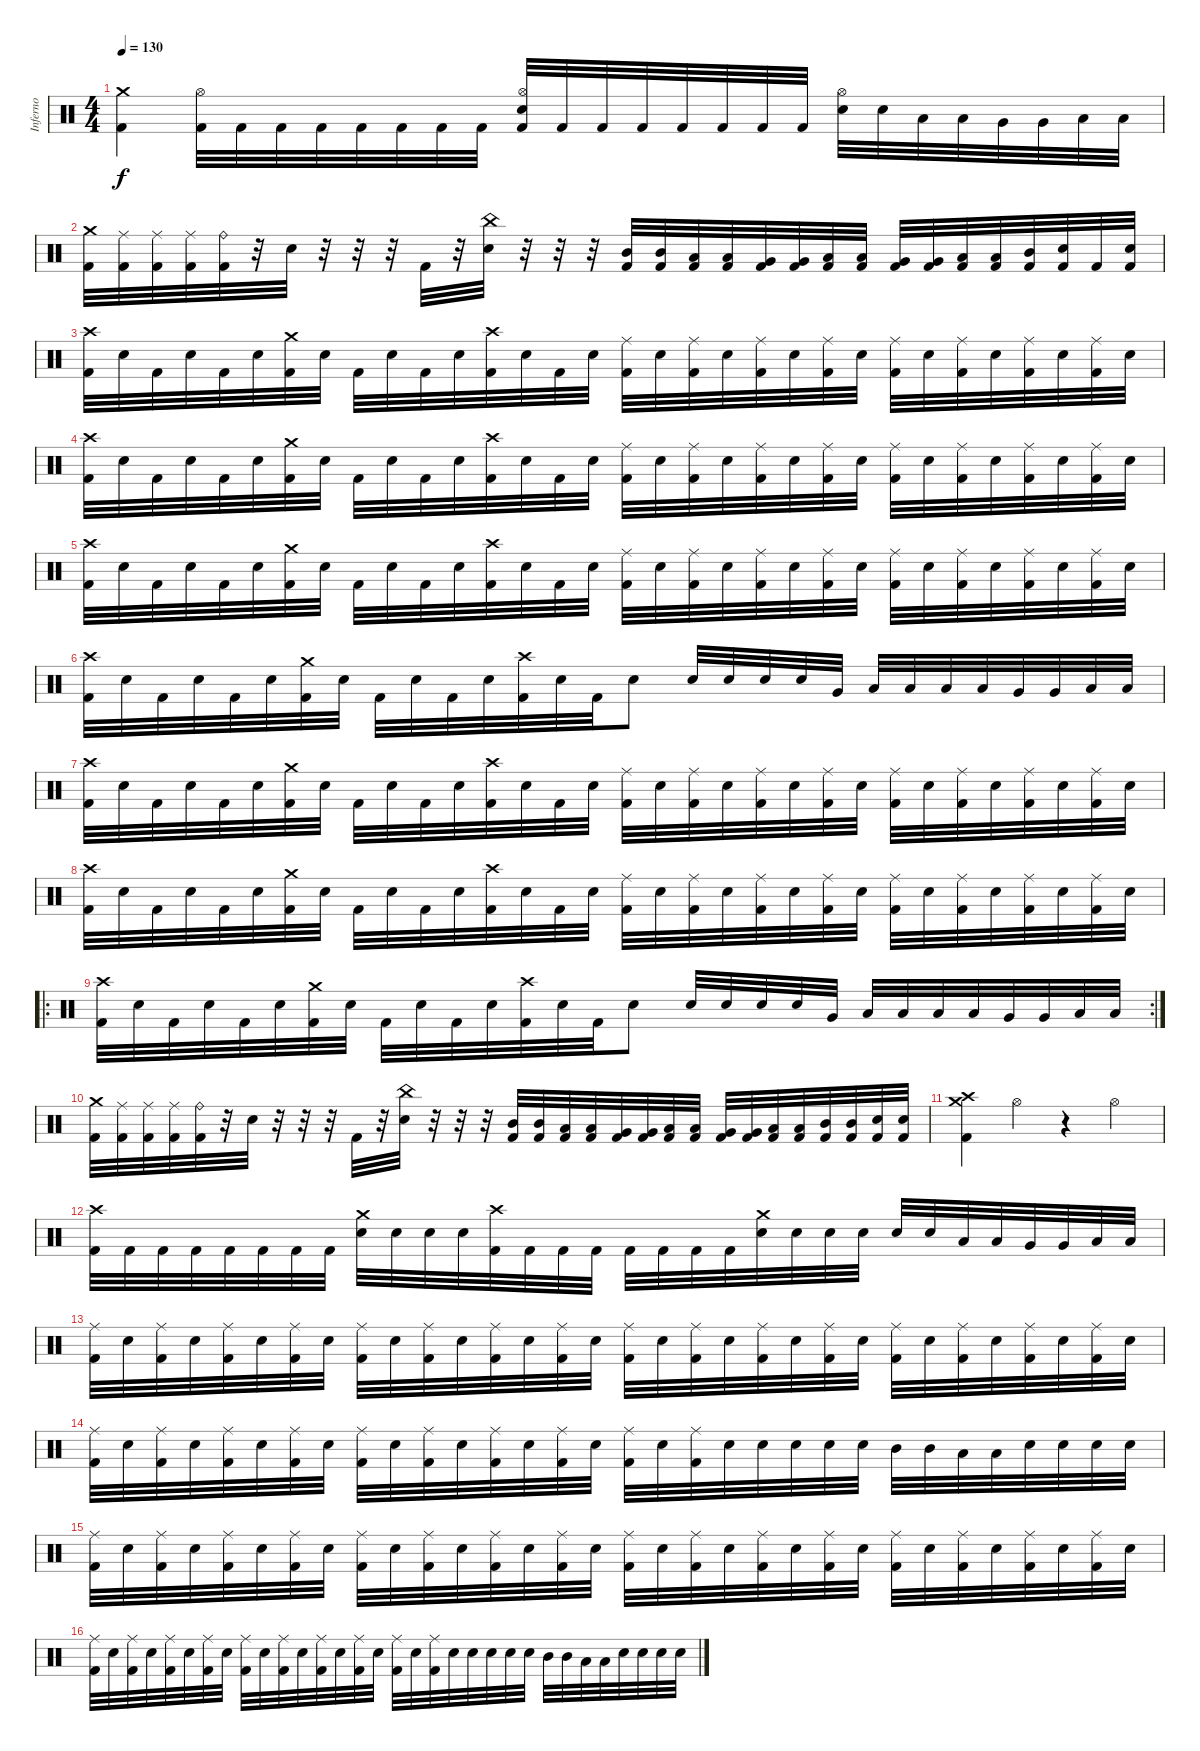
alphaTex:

\track ("Inferno" "Inferno") {instrument percussion}
\staff {score}
\articulation defaults
\ts (4 4)
\tempo 130
\clef neutral
\ks c
("Crash medium (hit)" "Kick (hit) 2").4{dy f} ("Hi-Hat (open)" "Kick (hit) 2").32 "Kick (hit) 2".32 "Kick (hit) 2".32 "Kick (hit) 2".32 "Kick (hit) 2".32 "Kick (hit) 2".32 "Kick (hit) 2".32 "Kick (hit) 2".32 ("Hi-Hat (open)" "Snare (hit) 2" "Kick (hit) 2").32 "Kick (hit) 2".32 "Kick (hit) 2".32 "Kick (hit) 2".32 "Kick (hit) 2".32 "Kick (hit) 2".32 "Kick (hit) 2".32 "Kick (hit) 2".32 ("Hi-Hat (open)" "Snare (hit) 2").32 "Snare (hit) 2".32 "Low Tom (hit)".32 "Low Tom (hit)".32 "Very Low Tom (hit)".32 "Very Low Tom (hit)".32 "Low Floor Tom (hit)".32 "Low Floor Tom (hit)".32 |
("Crash medium (hit)" "Kick (hit) 2").32 ("Ride (middle)" "Kick (hit) 2").32 ("Ride (middle)" "Kick (hit) 2").32 ("Ride (middle)" "Kick (hit) 2").32 ("Ride (bell)" "Kick (hit) 2").32 r.32 "Snare (hit) 2".32 r.32 r.32 r.32 "Kick (hit) 2".32 r.32 ("China (hit)" "Snare (hit) 2").32 r.32 r.32 r.32 ("Mid Tom (hit)" "Kick (hit) 2").32 ("Mid Tom (hit)" "Kick (hit) 2").32 ("Low Tom (hit)" "Kick (hit) 2").32 ("Low Tom (hit)" "Kick (hit) 2").32 ("Very Low Tom (hit)" "Kick (hit) 2").32 ("Very Low Tom (hit)" "Kick (hit) 2").32 ("Low Floor Tom (hit)" "Kick (hit) 2").32 ("Low Floor Tom (hit)" "Kick (hit) 2").32 ("Very Low Tom (hit)" "Kick (hit) 2").32 ("Very Low Tom (hit)" "Kick (hit) 2").32 ("Low Tom (hit)" "Kick (hit) 2").32 ("Low Tom (hit)" "Kick (hit) 2").32 ("Mid Tom (hit)" "Kick (hit) 2").32 ("Snare (hit) 2" "Kick (hit) 2").32 "Kick (hit) 2".32 ("Snare (hit) 2" "Kick (hit) 2").32 |
("Crash high (hit)" "Kick (hit) 2").32 "Snare (hit) 2".32 "Kick (hit) 2".32 "Snare (hit) 2".32 "Kick (hit) 2".32 "Snare (hit) 2".32 ("Crash medium (hit)" "Kick (hit) 2").32 "Snare (hit) 2".32 "Kick (hit) 2".32 "Snare (hit) 2".32 "Kick (hit) 2".32 "Snare (hit) 2".32 ("Crash high (hit)" "Kick (hit) 2").32 "Snare (hit) 2".32 "Kick (hit) 2".32 "Snare (hit) 2".32 ("Ride (middle)" "Kick (hit) 2").32 "Snare (hit) 2".32 ("Ride (middle)" "Kick (hit) 2").32 "Snare (hit) 2".32 ("Ride (middle)" "Kick (hit) 2").32 "Snare (hit) 2".32 ("Ride (middle)" "Kick (hit) 2").32 "Snare (hit) 2".32 ("Ride (middle)" "Kick (hit) 2").32 "Snare (hit) 2".32 ("Ride (middle)" "Kick (hit) 2").32 "Snare (hit) 2".32 ("Ride (middle)" "Kick (hit) 2").32 "Snare (hit) 2".32 ("Ride (middle)" "Kick (hit) 2").32 "Snare (hit) 2".32 |
("Crash high (hit)" "Kick (hit) 2").32 "Snare (hit) 2".32 "Kick (hit) 2".32 "Snare (hit) 2".32 "Kick (hit) 2".32 "Snare (hit) 2".32 ("Crash medium (hit)" "Kick (hit) 2").32 "Snare (hit) 2".32 "Kick (hit) 2".32 "Snare (hit) 2".32 "Kick (hit) 2".32 "Snare (hit) 2".32 ("Crash high (hit)" "Kick (hit) 2").32 "Snare (hit) 2".32 "Kick (hit) 2".32 "Snare (hit) 2".32 ("Ride (middle)" "Kick (hit) 2").32 "Snare (hit) 2".32 ("Ride (middle)" "Kick (hit) 2").32 "Snare (hit) 2".32 ("Ride (middle)" "Kick (hit) 2").32 "Snare (hit) 2".32 ("Ride (middle)" "Kick (hit) 2").32 "Snare (hit) 2".32 ("Ride (middle)" "Kick (hit) 2").32 "Snare (hit) 2".32 ("Ride (middle)" "Kick (hit) 2").32 "Snare (hit) 2".32 ("Ride (middle)" "Kick (hit) 2").32 "Snare (hit) 2".32 ("Ride (middle)" "Kick (hit) 2").32 "Snare (hit) 2".32 |
("Crash high (hit)" "Kick (hit) 2").32 "Snare (hit) 2".32 "Kick (hit) 2".32 "Snare (hit) 2".32 "Kick (hit) 2".32 "Snare (hit) 2".32 ("Crash medium (hit)" "Kick (hit) 2").32 "Snare (hit) 2".32 "Kick (hit) 2".32 "Snare (hit) 2".32 "Kick (hit) 2".32 "Snare (hit) 2".32 ("Crash high (hit)" "Kick (hit) 2").32 "Snare (hit) 2".32 "Kick (hit) 2".32 "Snare (hit) 2".32 ("Ride (middle)" "Kick (hit) 2").32 "Snare (hit) 2".32 ("Ride (middle)" "Kick (hit) 2").32 "Snare (hit) 2".32 ("Ride (middle)" "Kick (hit) 2").32 "Snare (hit) 2".32 ("Ride (middle)" "Kick (hit) 2").32 "Snare (hit) 2".32 ("Ride (middle)" "Kick (hit) 2").32 "Snare (hit) 2".32 ("Ride (middle)" "Kick (hit) 2").32 "Snare (hit) 2".32 ("Ride (middle)" "Kick (hit) 2").32 "Snare (hit) 2".32 ("Ride (middle)" "Kick (hit) 2").32 "Snare (hit) 2".32 |
("Crash high (hit)" "Kick (hit) 2").32 "Snare (hit) 2".32 "Kick (hit) 2".32 "Snare (hit) 2".32 "Kick (hit) 2".32 "Snare (hit) 2".32 ("Crash medium (hit)" "Kick (hit) 2").32 "Snare (hit) 2".32 "Kick (hit) 2".32 "Snare (hit) 2".32 "Kick (hit) 2".32 "Snare (hit) 2".32 ("Crash high (hit)" "Kick (hit) 2").32 "Snare (hit) 2".32 "Kick (hit) 2".32 "Snare (hit) 2".8 "Snare (hit) 2".32 "Snare (hit) 2".32 "Snare (hit) 2".32 "Snare (hit) 2".32 "Very Low Tom (hit)".32 "Low Tom (hit)".32 "Low Tom (hit)".32 "Low Tom (hit)".32 "Low Tom (hit)".32 "Very Low Tom (hit)".32 "Very Low Tom (hit)".32 "Low Floor Tom (hit)".32 "Low Floor Tom (hit)".32 |
("Crash high (hit)" "Kick (hit) 2").32 "Snare (hit) 2".32 "Kick (hit) 2".32 "Snare (hit) 2".32 "Kick (hit) 2".32 "Snare (hit) 2".32 ("Crash medium (hit)" "Kick (hit) 2").32 "Snare (hit) 2".32 "Kick (hit) 2".32 "Snare (hit) 2".32 "Kick (hit) 2".32 "Snare (hit) 2".32 ("Crash high (hit)" "Kick (hit) 2").32 "Snare (hit) 2".32 "Kick (hit) 2".32 "Snare (hit) 2".32 ("Ride (middle)" "Kick (hit) 2").32 "Snare (hit) 2".32 ("Ride (middle)" "Kick (hit) 2").32 "Snare (hit) 2".32 ("Ride (middle)" "Kick (hit) 2").32 "Snare (hit) 2".32 ("Ride (middle)" "Kick (hit) 2").32 "Snare (hit) 2".32 ("Ride (middle)" "Kick (hit) 2").32 "Snare (hit) 2".32 ("Ride (middle)" "Kick (hit) 2").32 "Snare (hit) 2".32 ("Ride (middle)" "Kick (hit) 2").32 "Snare (hit) 2".32 ("Ride (middle)" "Kick (hit) 2").32 "Snare (hit) 2".32 |
("Crash high (hit)" "Kick (hit) 2").32 "Snare (hit) 2".32 "Kick (hit) 2".32 "Snare (hit) 2".32 "Kick (hit) 2".32 "Snare (hit) 2".32 ("Crash medium (hit)" "Kick (hit) 2").32 "Snare (hit) 2".32 "Kick (hit) 2".32 "Snare (hit) 2".32 "Kick (hit) 2".32 "Snare (hit) 2".32 ("Crash high (hit)" "Kick (hit) 2").32 "Snare (hit) 2".32 "Kick (hit) 2".32 "Snare (hit) 2".32 ("Ride (middle)" "Kick (hit) 2").32 "Snare (hit) 2".32 ("Ride (middle)" "Kick (hit) 2").32 "Snare (hit) 2".32 ("Ride (middle)" "Kick (hit) 2").32 "Snare (hit) 2".32 ("Ride (middle)" "Kick (hit) 2").32 "Snare (hit) 2".32 ("Ride (middle)" "Kick (hit) 2").32 "Snare (hit) 2".32 ("Ride (middle)" "Kick (hit) 2").32 "Snare (hit) 2".32 ("Ride (middle)" "Kick (hit) 2").32 "Snare (hit) 2".32 ("Ride (middle)" "Kick (hit) 2").32 "Snare (hit) 2".32 |
\ro
\rc 2
("Crash high (hit)" "Kick (hit) 2").32 "Snare (hit) 2".32 "Kick (hit) 2".32 "Snare (hit) 2".32 "Kick (hit) 2".32 "Snare (hit) 2".32 ("Crash medium (hit)" "Kick (hit) 2").32 "Snare (hit) 2".32 "Kick (hit) 2".32 "Snare (hit) 2".32 "Kick (hit) 2".32 "Snare (hit) 2".32 ("Crash high (hit)" "Kick (hit) 2").32 "Snare (hit) 2".32 "Kick (hit) 2".32 "Snare (hit) 2".8 "Snare (hit) 2".32 "Snare (hit) 2".32 "Snare (hit) 2".32 "Snare (hit) 2".32 "Very Low Tom (hit)".32 "Low Tom (hit)".32 "Low Tom (hit)".32 "Low Tom (hit)".32 "Low Tom (hit)".32 "Very Low Tom (hit)".32 "Very Low Tom (hit)".32 "Low Floor Tom (hit)".32 "Low Floor Tom (hit)".32 |
("Crash medium (hit)" "Kick (hit) 2").32 ("Ride (middle)" "Kick (hit) 2").32 ("Ride (middle)" "Kick (hit) 2").32 ("Ride (middle)" "Kick (hit) 2").32 ("Ride (bell)" "Kick (hit) 2").32 r.32 "Snare (hit) 2".32 r.32 r.32 r.32 "Kick (hit) 2".32 r.32 ("China (hit)" "Snare (hit) 2").32 r.32 r.32 r.32 ("Mid Tom (hit)" "Kick (hit) 2").32 ("Mid Tom (hit)" "Kick (hit) 2").32 ("Low Tom (hit)" "Kick (hit) 2").32 ("Low Tom (hit)" "Kick (hit) 2").32 ("Very Low Tom (hit)" "Kick (hit) 2").32 ("Very Low Tom (hit)" "Kick (hit) 2").32 ("Low Floor Tom (hit)" "Kick (hit) 2").32 ("Low Floor Tom (hit)" "Kick (hit) 2").32 ("Very Low Tom (hit)" "Kick (hit) 2").32 ("Very Low Tom (hit)" "Kick (hit) 2").32 ("Low Tom (hit)" "Kick (hit) 2").32 ("Low Tom (hit)" "Kick (hit) 2").32 ("Mid Tom (hit)" "Kick (hit) 2").32 ("Mid Tom (hit)" "Kick (hit) 2").32 ("Snare (hit) 2" "Kick (hit) 2").32 ("Snare (hit) 2" "Kick (hit) 2").32 |
("Crash high (hit)" "Crash medium (hit)" "Kick (hit) 2").4 "Hi-Hat (open)".4 r.4 "Hi-Hat (open)".4 |
("Crash high (hit)" "Kick (hit) 2").32 "Kick (hit) 2".32 "Kick (hit) 2".32 "Kick (hit) 2".32 "Kick (hit) 2".32 "Kick (hit) 2".32 "Kick (hit) 2".32 "Kick (hit) 2".32 ("Crash medium (hit)" "Snare (hit) 2").32 "Snare (hit) 2".32 "Snare (hit) 2".32 "Snare (hit) 2".32 ("Crash high (hit)" "Kick (hit) 2").32 "Kick (hit) 2".32 "Kick (hit) 2".32 "Kick (hit) 2".32 "Kick (hit) 2".32 "Kick (hit) 2".32 "Kick (hit) 2".32 "Kick (hit) 2".32 ("Crash medium (hit)" "Snare (hit) 2").32 "Snare (hit) 2".32 "Snare (hit) 2".32 "Snare (hit) 2".32 "Snare (hit) 2".32 "Snare (hit) 2".32 "Low Tom (hit)".32 "Low Tom (hit)".32 "Very Low Tom (hit)".32 "Very Low Tom (hit)".32 "Low Floor Tom (hit)".32 "Low Floor Tom (hit)".32 |
("Ride (middle)" "Kick (hit) 2").32 "Snare (hit) 2".32 ("Ride (middle)" "Kick (hit) 2").32 "Snare (hit) 2".32 ("Ride (middle)" "Kick (hit) 2").32 "Snare (hit) 2".32 ("Ride (middle)" "Kick (hit) 2").32 "Snare (hit) 2".32 ("Ride (middle)" "Kick (hit) 2").32 "Snare (hit) 2".32 ("Ride (middle)" "Kick (hit) 2").32 "Snare (hit) 2".32 ("Ride (middle)" "Kick (hit) 2").32 "Snare (hit) 2".32 ("Ride (middle)" "Kick (hit) 2").32 "Snare (hit) 2".32 ("Ride (middle)" "Kick (hit) 2").32 "Snare (hit) 2".32 ("Ride (middle)" "Kick (hit) 2").32 "Snare (hit) 2".32 ("Ride (middle)" "Kick (hit) 2").32 "Snare (hit) 2".32 ("Ride (middle)" "Kick (hit) 2").32 "Snare (hit) 2".32 ("Ride (middle)" "Kick (hit) 2").32 "Snare (hit) 2".32 ("Ride (middle)" "Kick (hit) 2").32 "Snare (hit) 2".32 ("Ride (middle)" "Kick (hit) 2").32 "Snare (hit) 2".32 ("Ride (middle)" "Kick (hit) 2").32 "Snare (hit) 2".32 |
("Ride (middle)" "Kick (hit) 2").32 "Snare (hit) 2".32 ("Ride (middle)" "Kick (hit) 2").32 "Snare (hit) 2".32 ("Ride (middle)" "Kick (hit) 2").32 "Snare (hit) 2".32 ("Ride (middle)" "Kick (hit) 2").32 "Snare (hit) 2".32 ("Ride (middle)" "Kick (hit) 2").32 "Snare (hit) 2".32 ("Ride (middle)" "Kick (hit) 2").32 "Snare (hit) 2".32 ("Ride (middle)" "Kick (hit) 2").32 "Snare (hit) 2".32 ("Ride (middle)" "Kick (hit) 2").32 "Snare (hit) 2".32 ("Ride (middle)" "Kick (hit) 2").32 "Snare (hit) 2".32 ("Ride (middle)" "Kick (hit) 2").32 "Snare (hit) 2".32 "Snare (hit) 2".32 "Snare (hit) 2".32 "Snare (hit) 2".32 "Snare (hit) 2".32 "Mid Tom (hit)".32 "Mid Tom (hit)".32 "Low Tom (hit)".32 "Low Tom (hit)".32 "Snare (hit) 2".32 "Snare (hit) 2".32 "Snare (hit) 2".32 "Snare (hit) 2".32 |
("Ride (middle)" "Kick (hit) 2").32 "Snare (hit) 2".32 ("Ride (middle)" "Kick (hit) 2").32 "Snare (hit) 2".32 ("Ride (middle)" "Kick (hit) 2").32 "Snare (hit) 2".32 ("Ride (middle)" "Kick (hit) 2").32 "Snare (hit) 2".32 ("Ride (middle)" "Kick (hit) 2").32 "Snare (hit) 2".32 ("Ride (middle)" "Kick (hit) 2").32 "Snare (hit) 2".32 ("Ride (middle)" "Kick (hit) 2").32 "Snare (hit) 2".32 ("Ride (middle)" "Kick (hit) 2").32 "Snare (hit) 2".32 ("Ride (middle)" "Kick (hit) 2").32 "Snare (hit) 2".32 ("Ride (middle)" "Kick (hit) 2").32 "Snare (hit) 2".32 ("Ride (middle)" "Kick (hit) 2").32 "Snare (hit) 2".32 ("Ride (middle)" "Kick (hit) 2").32 "Snare (hit) 2".32 ("Ride (middle)" "Kick (hit) 2").32 "Snare (hit) 2".32 ("Ride (middle)" "Kick (hit) 2").32 "Snare (hit) 2".32 ("Ride (middle)" "Kick (hit) 2").32 "Snare (hit) 2".32 ("Ride (middle)" "Kick (hit) 2").32 "Snare (hit) 2".32 |
("Ride (middle)" "Kick (hit) 2").32 "Snare (hit) 2".32 ("Ride (middle)" "Kick (hit) 2").32 "Snare (hit) 2".32 ("Ride (middle)" "Kick (hit) 2").32 "Snare (hit) 2".32 ("Ride (middle)" "Kick (hit) 2").32 "Snare (hit) 2".32 ("Ride (middle)" "Kick (hit) 2").32 "Snare (hit) 2".32 ("Ride (middle)" "Kick (hit) 2").32 "Snare (hit) 2".32 ("Ride (middle)" "Kick (hit) 2").32 "Snare (hit) 2".32 ("Ride (middle)" "Kick (hit) 2").32 "Snare (hit) 2".32 ("Ride (middle)" "Kick (hit) 2").32 "Snare (hit) 2".32 ("Ride (middle)" "Kick (hit) 2").32 "Snare (hit) 2".32 "Snare (hit) 2".32 "Snare (hit) 2".32 "Snare (hit) 2".32 "Snare (hit) 2".32 "Mid Tom (hit)".32 "Mid Tom (hit)".32 "Low Tom (hit)".32 "Low Tom (hit)".32 "Snare (hit) 2".32 "Snare (hit) 2".32 "Snare (hit) 2".32 "Snare (hit) 2".32
